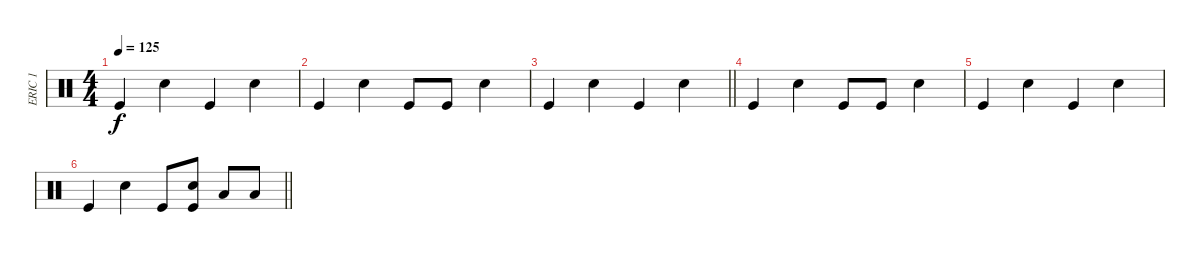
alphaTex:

\track ("ERIC 1" "ERIC 1") {instrument percussion}
\staff {score}
\articulation defaults
\ts (4 4)
\tempo 125
\clef neutral
\ks c "Kick (hit)".4{dy f} "Electric Snare (hit)".4 "Kick (hit)".4 "Electric Snare (hit)".4
|
"Kick (hit)".4 "Electric Snare (hit)".4 "Kick (hit)".8 "Kick (hit)".8 "Electric Snare (hit)".4 |
\barLineRight lightlight "Kick (hit)".4 "Electric Snare (hit)".4 "Kick (hit)".4 "Electric Snare (hit)".4
|
"Kick (hit)".4 "Electric Snare (hit)".4 "Kick (hit)".8 "Kick (hit)".8 "Electric Snare (hit)".4 |
"Kick (hit)".4 "Electric Snare (hit)".4 "Kick (hit)".4 "Electric Snare (hit)".4 |
\barLineRight lightlight "Kick (hit)".4 "Electric Snare (hit)".4 "Kick (hit)".8
("Electric Snare (hit)" "Kick (hit)").8 "Low Tom (hit)".8 "Low Floor Tom (hit)".8
